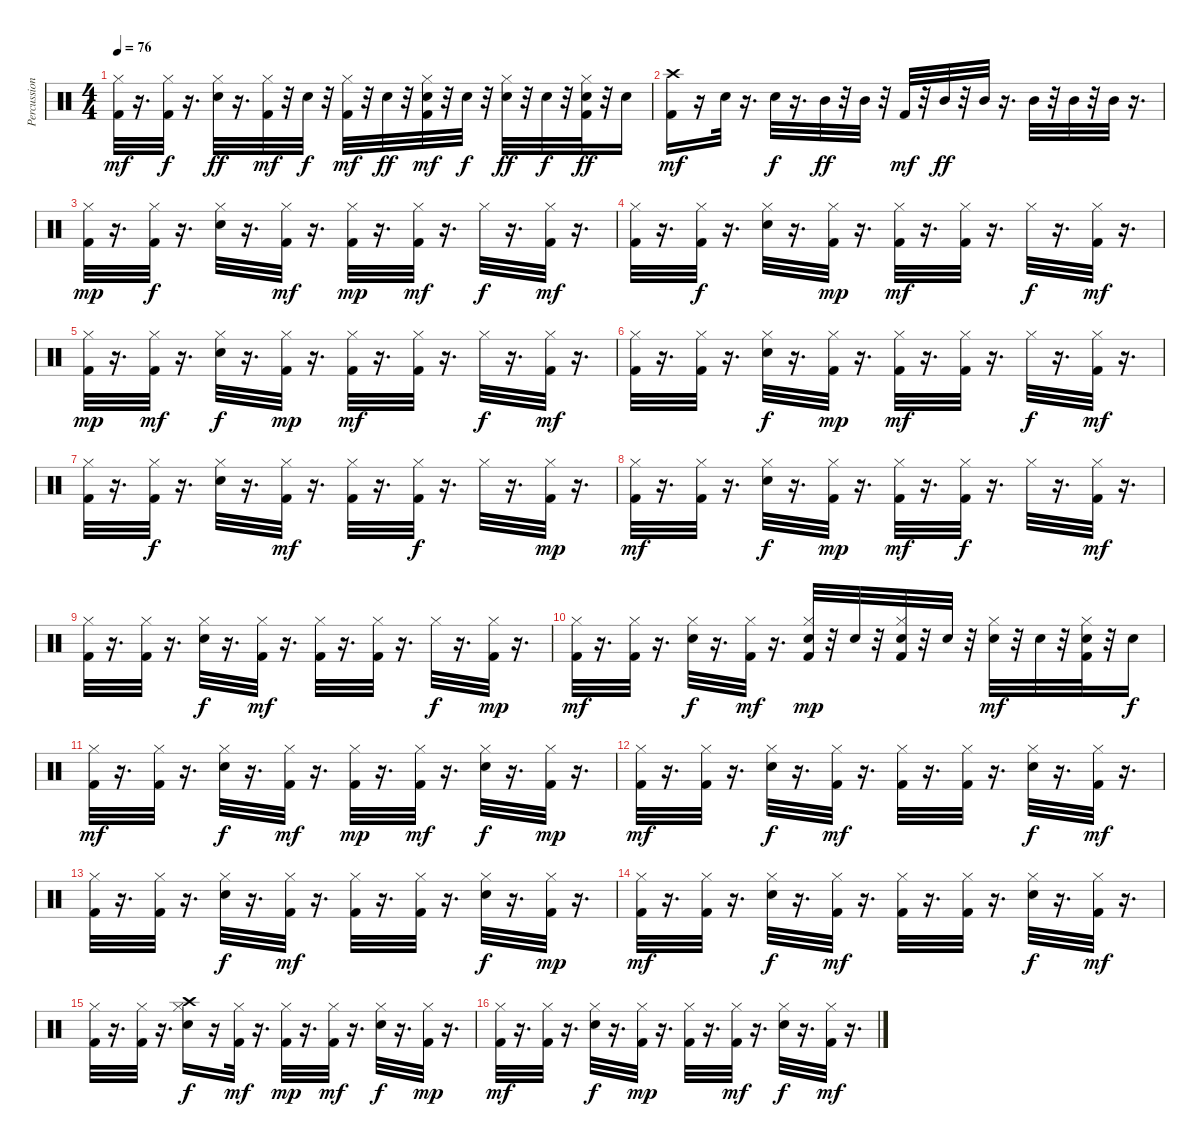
\track ("Percussion Fill" "Percussion") {instrument percussion}
\staff {score}
\articulation defaults
\ts (4 4)
\tempo 76
\clef neutral
\ks c
("Kick (hit) 2" "Hi-Hat (closed)").32{dy mf} r.16{d} ("Kick (hit) 2" "Hi-Hat (closed)").32{dy f} r.16{d} ("Snare (hit) 2" "Hi-Hat (closed)").32{dy ff} r.16{d} ("Kick (hit) 2" "Hi-Hat (closed)").32{dy mf} r.32 "Snare (hit) 2".32{dy f} r.32 ("Kick (hit) 2" "Hi-Hat (closed)").32{dy mf} r.32 "Snare (hit) 2".32{dy ff} r.32 ("Kick (hit) 2" "Snare (hit) 2" "Hi-Hat (closed)").32{dy mf} r.32 "Snare (hit) 2".32{dy f} r.32 ("Snare (hit) 2" "Hi-Hat (closed)").32{dy ff} r.32 "Snare (hit) 2".32{dy f} r.32 ("Kick (hit) 2" "Snare (hit) 2" "Hi-Hat (closed)").32{dy ff} r.32 "Snare (hit) 2".16 |
("Kick (hit) 2" "Crash high (hit)").16{dy mf} r.16 "Snare (hit) 2".32 r.16{d} "Snare (hit) 2".32{dy f} r.16{d} "Mid Tom (hit)".32{dy ff} r.32 "Mid Tom (hit)".32 r.32 "Kick (hit) 2".32{dy mf} r.32 "Mid Tom (hit)".32{dy ff} r.32 "Mid Tom (hit)".32 r.16{d} "Mid Tom (hit)".32 r.32 "Mid Tom (hit)".32 r.32 "Mid Tom (hit)".32 r.16{d} |
("Kick (hit) 2" "Hi-Hat (closed)").32{dy mp} r.16{d} ("Kick (hit) 2" "Hi-Hat (closed)").32{dy f} r.16{d} ("Snare (hit) 2" "Hi-Hat (closed)").32 r.16{d} ("Kick (hit) 2" "Hi-Hat (closed)").32{dy mf} r.16{d} ("Kick (hit) 2" "Hi-Hat (closed)").32{dy mp} r.16{d} ("Kick (hit) 2" "Hi-Hat (closed)").32{dy mf} r.16{d} "Hi-Hat (closed)".32{dy f} r.16{d} ("Kick (hit) 2" "Hi-Hat (closed)").32{dy mf} r.16{d} |
("Kick (hit) 2" "Hi-Hat (closed)").32 r.16{d} ("Kick (hit) 2" "Hi-Hat (closed)").32{dy f} r.16{d} ("Snare (hit) 2" "Hi-Hat (closed)").32 r.16{d} ("Kick (hit) 2" "Hi-Hat (closed)").32{dy mp} r.16{d} ("Kick (hit) 2" "Hi-Hat (closed)").32{dy mf} r.16{d} ("Kick (hit) 2" "Hi-Hat (closed)").32 r.16{d} "Hi-Hat (closed)".32{dy f} r.16{d} ("Kick (hit) 2" "Hi-Hat (closed)").32{dy mf} r.16{d} |
("Kick (hit) 2" "Hi-Hat (closed)").32{dy mp} r.16{d} ("Kick (hit) 2" "Hi-Hat (closed)").32{dy mf} r.16{d} ("Snare (hit) 2" "Hi-Hat (closed)").32{dy f} r.16{d} ("Kick (hit) 2" "Hi-Hat (closed)").32{dy mp} r.16{d} ("Kick (hit) 2" "Hi-Hat (closed)").32{dy mf} r.16{d} ("Kick (hit) 2" "Hi-Hat (closed)").32 r.16{d} "Hi-Hat (closed)".32{dy f} r.16{d} ("Kick (hit) 2" "Hi-Hat (closed)").32{dy mf} r.16{d} |
("Kick (hit) 2" "Hi-Hat (closed)").32 r.16{d} ("Kick (hit) 2" "Hi-Hat (closed)").32 r.16{d} ("Snare (hit) 2" "Hi-Hat (closed)").32{dy f} r.16{d} ("Kick (hit) 2" "Hi-Hat (closed)").32{dy mp} r.16{d} ("Kick (hit) 2" "Hi-Hat (closed)").32{dy mf} r.16{d} ("Kick (hit) 2" "Hi-Hat (closed)").32 r.16{d} "Hi-Hat (closed)".32{dy f} r.16{d} ("Kick (hit) 2" "Hi-Hat (closed)").32{dy mf} r.16{d} |
("Kick (hit) 2" "Hi-Hat (closed)").32 r.16{d} ("Kick (hit) 2" "Hi-Hat (closed)").32{dy f} r.16{d} ("Snare (hit) 2" "Hi-Hat (closed)").32 r.16{d} ("Kick (hit) 2" "Hi-Hat (closed)").32{dy mf} r.16{d} ("Kick (hit) 2" "Hi-Hat (closed)").32 r.16{d} ("Kick (hit) 2" "Hi-Hat (closed)").32{dy f} r.16{d} "Hi-Hat (closed)".32 r.16{d} ("Kick (hit) 2" "Hi-Hat (closed)").32{dy mp} r.16{d} |
("Kick (hit) 2" "Hi-Hat (closed)").32{dy mf} r.16{d} ("Kick (hit) 2" "Hi-Hat (closed)").32 r.16{d} ("Snare (hit) 2" "Hi-Hat (closed)").32{dy f} r.16{d} ("Kick (hit) 2" "Hi-Hat (closed)").32{dy mp} r.16{d} ("Kick (hit) 2" "Hi-Hat (closed)").32{dy mf} r.16{d} ("Kick (hit) 2" "Hi-Hat (closed)").32{dy f} r.16{d} "Hi-Hat (closed)".32 r.16{d} ("Kick (hit) 2" "Hi-Hat (closed)").32{dy mf} r.16{d} |
("Kick (hit) 2" "Hi-Hat (closed)").32 r.16{d} ("Kick (hit) 2" "Hi-Hat (closed)").32 r.16{d} ("Snare (hit) 2" "Hi-Hat (closed)").32{dy f} r.16{d} ("Kick (hit) 2" "Hi-Hat (closed)").32{dy mf} r.16{d} ("Kick (hit) 2" "Hi-Hat (closed)").32 r.16{d} ("Kick (hit) 2" "Hi-Hat (closed)").32 r.16{d} "Hi-Hat (closed)".32{dy f} r.16{d} ("Kick (hit) 2" "Hi-Hat (closed)").32{dy mp} r.16{d} |
("Kick (hit) 2" "Hi-Hat (closed)").32{dy mf} r.16{d} ("Kick (hit) 2" "Hi-Hat (closed)").32 r.16{d} ("Snare (hit) 2" "Hi-Hat (closed)").32{dy f} r.16{d} ("Kick (hit) 2" "Hi-Hat (closed)").32{dy mf} r.16{d} ("Kick (hit) 2" "Snare (hit) 2" "Hi-Hat (closed)").32{dy mp} r.32 "Snare (hit) 2".32 r.32 ("Kick (hit) 2" "Snare (hit) 2" "Hi-Hat (closed)").32 r.32 "Snare (hit) 2".32 r.32 ("Snare (hit) 2" "Hi-Hat (closed)").32{dy mf} r.32 "Snare (hit) 2".32 r.32 ("Kick (hit) 2" "Snare (hit) 2" "Hi-Hat (closed)").32 r.32 "Snare (hit) 2".16{dy f} |
("Kick (hit) 2" "Hi-Hat (closed)").32{dy mf} r.16{d} ("Kick (hit) 2" "Hi-Hat (closed)").32 r.16{d} ("Snare (hit) 2" "Hi-Hat (closed)").32{dy f} r.16{d} ("Kick (hit) 2" "Hi-Hat (closed)").32{dy mf} r.16{d} ("Kick (hit) 2" "Hi-Hat (closed)").32{dy mp} r.16{d} ("Kick (hit) 2" "Hi-Hat (closed)").32{dy mf} r.16{d} ("Snare (hit) 2" "Hi-Hat (closed)").32{dy f} r.16{d} ("Kick (hit) 2" "Hi-Hat (closed)").32{dy mp} r.16{d} |
("Kick (hit) 2" "Hi-Hat (closed)").32{dy mf} r.16{d} ("Kick (hit) 2" "Hi-Hat (closed)").32 r.16{d} ("Snare (hit) 2" "Hi-Hat (closed)").32{dy f} r.16{d} ("Kick (hit) 2" "Hi-Hat (closed)").32{dy mf} r.16{d} ("Kick (hit) 2" "Hi-Hat (closed)").32 r.16{d} ("Kick (hit) 2" "Hi-Hat (closed)").32 r.16{d} ("Snare (hit) 2" "Hi-Hat (closed)").32{dy f} r.16{d} ("Kick (hit) 2" "Hi-Hat (closed)").32{dy mf} r.16{d} |
("Kick (hit) 2" "Hi-Hat (closed)").32 r.16{d} ("Kick (hit) 2" "Hi-Hat (closed)").32 r.16{d} ("Snare (hit) 2" "Hi-Hat (closed)").32{dy f} r.16{d} ("Kick (hit) 2" "Hi-Hat (closed)").32{dy mf} r.16{d} ("Kick (hit) 2" "Hi-Hat (closed)").32 r.16{d} ("Kick (hit) 2" "Hi-Hat (closed)").32 r.16{d} ("Snare (hit) 2" "Hi-Hat (closed)").32{dy f} r.16{d} ("Kick (hit) 2" "Hi-Hat (closed)").32{dy mp} r.16{d} |
("Kick (hit) 2" "Hi-Hat (closed)").32{dy mf} r.16{d} ("Kick (hit) 2" "Hi-Hat (closed)").32 r.16{d} ("Snare (hit) 2" "Hi-Hat (closed)").32{dy f} r.16{d} ("Kick (hit) 2" "Hi-Hat (closed)").32{dy mf} r.16{d} ("Kick (hit) 2" "Hi-Hat (closed)").32 r.16{d} ("Kick (hit) 2" "Hi-Hat (closed)").32 r.16{d} ("Snare (hit) 2" "Hi-Hat (closed)").32{dy f} r.16{d} ("Kick (hit) 2" "Hi-Hat (closed)").32{dy mf} r.16{d} |
("Kick (hit) 2" "Hi-Hat (closed)").32 r.16{d} ("Kick (hit) 2" "Hi-Hat (closed)").32 r.16{d} ("Snare (hit) 2" "Hi-Hat (closed)" "Crash high (hit)").16{dy f} r.16 ("Kick (hit) 2" "Hi-Hat (closed)").32{dy mf} r.16{d} ("Kick (hit) 2" "Hi-Hat (closed)").32{dy mp} r.16{d} ("Kick (hit) 2" "Hi-Hat (closed)").32{dy mf} r.16{d} ("Snare (hit) 2" "Hi-Hat (closed)").32{dy f} r.16{d} ("Kick (hit) 2" "Hi-Hat (closed)").32{dy mp} r.16{d} |
("Kick (hit) 2" "Hi-Hat (closed)").32{dy mf} r.16{d} ("Kick (hit) 2" "Hi-Hat (closed)").32 r.16{d} ("Snare (hit) 2" "Hi-Hat (closed)").32{dy f} r.16{d} ("Kick (hit) 2" "Hi-Hat (closed)").32{dy mp} r.16{d} ("Kick (hit) 2" "Hi-Hat (closed)").32 r.16{d} ("Kick (hit) 2" "Hi-Hat (closed)").32{dy mf} r.16{d} ("Snare (hit) 2" "Hi-Hat (closed)").32{dy f} r.16{d} ("Kick (hit) 2" "Hi-Hat (closed)").32{dy mf} r.16{d}
